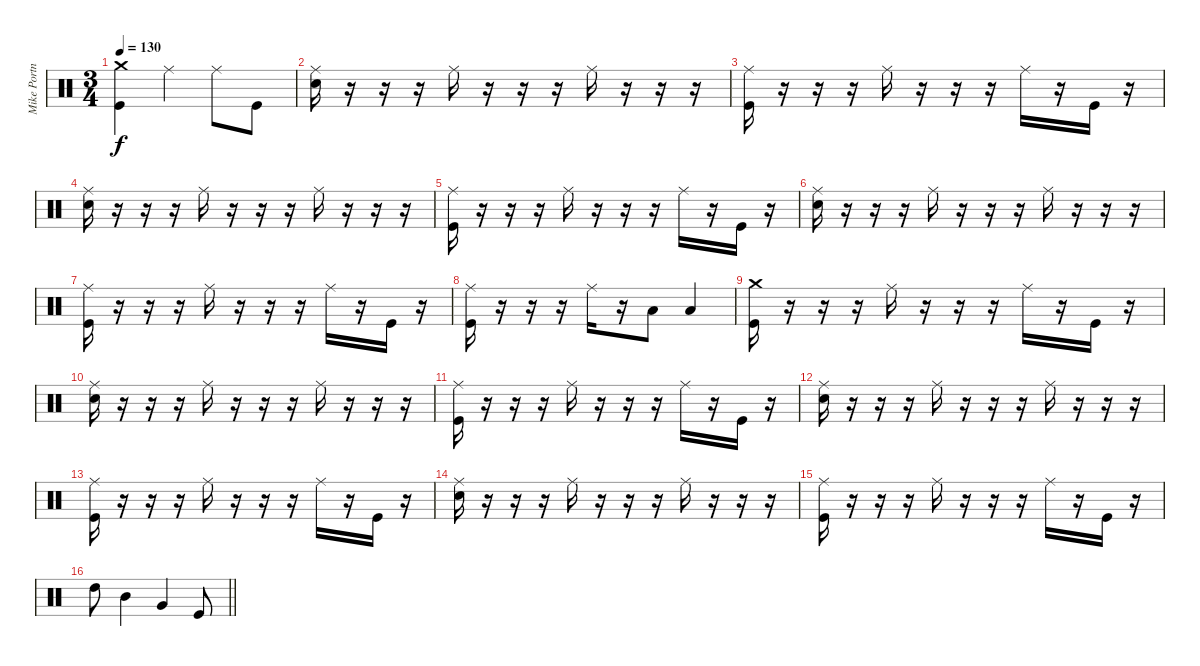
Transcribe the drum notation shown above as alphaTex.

\track ("Mike Portnoy" "Mike Portn") {instrument percussion}
\staff {score}
\articulation defaults
\ts (3 4)
\tempo 130
\clef neutral
\ks c
("Kick (hit)" "Crash medium (hit)").4{dy f} "Ride (middle)".4 "Ride (middle)".8 "Kick (hit)".8 |
("Electric Snare (hit)" "Ride (middle)").16 r.16 r.16 r.16 "Ride (middle)".16 r.16 r.16 r.16 "Ride (middle)".16 r.16 r.16 r.16 |
("Kick (hit)" "Ride (middle)").16 r.16 r.16 r.16 "Ride (middle)".16 r.16 r.16 r.16 "Ride (middle)".16 r.16 "Kick (hit)".16 r.16 |
("Electric Snare (hit)" "Ride (middle)").16 r.16 r.16 r.16 "Ride (middle)".16 r.16 r.16 r.16 "Ride (middle)".16 r.16 r.16 r.16 |
("Kick (hit)" "Ride (middle)").16 r.16 r.16 r.16 "Ride (middle)".16 r.16 r.16 r.16 "Ride (middle)".16 r.16 "Kick (hit)".16 r.16 |
("Electric Snare (hit)" "Ride (middle)").16 r.16 r.16 r.16 "Ride (middle)".16 r.16 r.16 r.16 "Ride (middle)".16 r.16 r.16 r.16 |
("Kick (hit)" "Ride (middle)").16 r.16 r.16 r.16 "Ride (middle)".16 r.16 r.16 r.16 "Ride (middle)".16 r.16 "Kick (hit)".16 r.16 |
("Kick (hit)" "Ride (middle)").16 r.16 r.16 r.16 "Ride (middle)".16 r.16 "Low Floor Tom (hit)".8 "Low Floor Tom (hit)".4 |
("Kick (hit)" "Crash medium (hit)").16 r.16 r.16 r.16 "Ride (middle)".16 r.16 r.16 r.16 "Ride (middle)".16 r.16 "Kick (hit)".16 r.16 |
("Electric Snare (hit)" "Ride (middle)").16 r.16 r.16 r.16 "Ride (middle)".16 r.16 r.16 r.16 "Ride (middle)".16 r.16 r.16 r.16 |
("Kick (hit)" "Ride (middle)").16 r.16 r.16 r.16 "Ride (middle)".16 r.16 r.16 r.16 "Ride (middle)".16 r.16 "Kick (hit)".16 r.16 |
("Electric Snare (hit)" "Ride (middle)").16 r.16 r.16 r.16 "Ride (middle)".16 r.16 r.16 r.16 "Ride (middle)".16 r.16 r.16 r.16 |
("Kick (hit)" "Ride (middle)").16 r.16 r.16 r.16 "Ride (middle)".16 r.16 r.16 r.16 "Ride (middle)".16 r.16 "Kick (hit)".16 r.16 |
("Electric Snare (hit)" "Ride (middle)").16 r.16 r.16 r.16 "Ride (middle)".16 r.16 r.16 r.16 "Ride (middle)".16 r.16 r.16 r.16 |
("Kick (hit)" "Ride (middle)").16 r.16 r.16 r.16 "Ride (middle)".16 r.16 r.16 r.16 "Ride (middle)".16 r.16 "Kick (hit)".16 r.16 |
\barLineRight lightlight "High Tom (hit)".8 "Mid Tom (hit)".4 "Very Low Tom (hit)".4 "Kick (hit)".8
